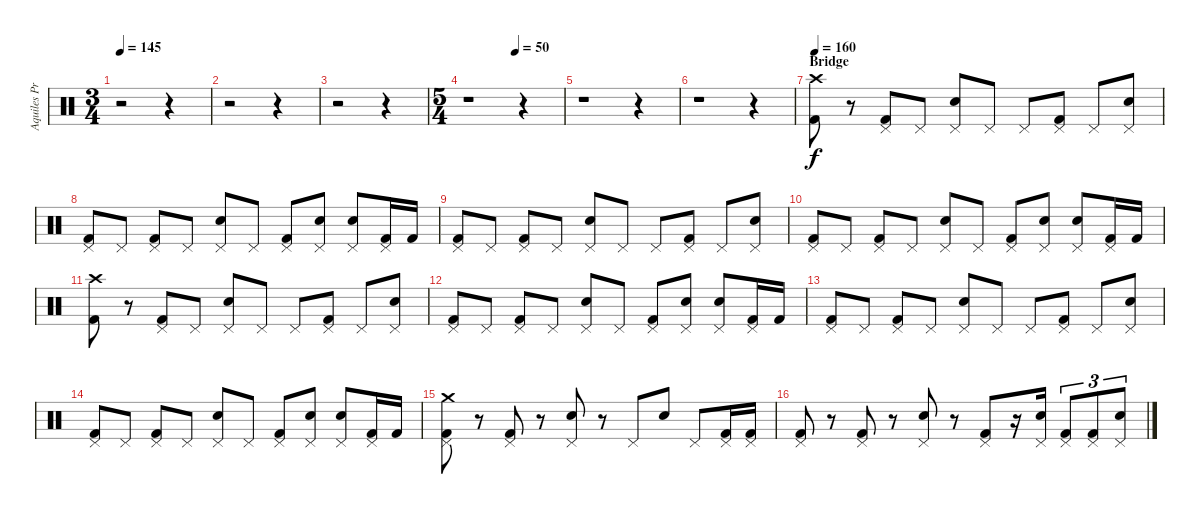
\track ("Aquiles Priester" "Aquiles Pr") {instrument percussion}
\staff {score}
\articulation defaults
\ts (3 4)
\tempo 145
\clef neutral
\ks c
r.2{dy f} r.4 |
r.2 r.4 |
r.2 r.4 |
\ts (5 4)
\tempo (50 0.5)
r.1 r.4 |
r.1 r.4 |
r.1 r.4 |
\section ("" "Bridge")
\tempo 160
("Crash high (hit)" "Kick (hit) 2").8 r.8 ("Pedal Hi-Hat (hit)" "Kick (hit) 2").8 "Pedal Hi-Hat (hit)".8 ("Pedal Hi-Hat (hit)" "Snare (hit) 2").8 "Pedal Hi-Hat (hit)".8 "Pedal Hi-Hat (hit)".8 ("Pedal Hi-Hat (hit)" "Kick (hit) 2").8 "Pedal Hi-Hat (hit)".8 ("Pedal Hi-Hat (hit)" "Snare (hit) 2").8 |
("Pedal Hi-Hat (hit)" "Kick (hit) 2").8 "Pedal Hi-Hat (hit)".8 ("Pedal Hi-Hat (hit)" "Kick (hit) 2").8 "Pedal Hi-Hat (hit)".8 ("Pedal Hi-Hat (hit)" "Snare (hit) 2").8 "Pedal Hi-Hat (hit)".8 ("Pedal Hi-Hat (hit)" "Kick (hit) 2").8 ("Pedal Hi-Hat (hit)" "Snare (hit) 2").8 ("Pedal Hi-Hat (hit)" "Snare (hit) 2").8 ("Pedal Hi-Hat (hit)" "Kick (hit) 2").16 "Kick (hit) 2".16 |
("Pedal Hi-Hat (hit)" "Kick (hit) 2").8 "Pedal Hi-Hat (hit)".8 ("Pedal Hi-Hat (hit)" "Kick (hit) 2").8 "Pedal Hi-Hat (hit)".8 ("Pedal Hi-Hat (hit)" "Snare (hit) 2").8 "Pedal Hi-Hat (hit)".8 "Pedal Hi-Hat (hit)".8 ("Pedal Hi-Hat (hit)" "Kick (hit) 2").8 "Pedal Hi-Hat (hit)".8 ("Pedal Hi-Hat (hit)" "Snare (hit) 2").8 |
("Pedal Hi-Hat (hit)" "Kick (hit) 2").8 "Pedal Hi-Hat (hit)".8 ("Pedal Hi-Hat (hit)" "Kick (hit) 2").8 "Pedal Hi-Hat (hit)".8 ("Pedal Hi-Hat (hit)" "Snare (hit) 2").8 "Pedal Hi-Hat (hit)".8 ("Pedal Hi-Hat (hit)" "Kick (hit) 2").8 ("Pedal Hi-Hat (hit)" "Snare (hit) 2").8 ("Pedal Hi-Hat (hit)" "Snare (hit) 2").8 ("Pedal Hi-Hat (hit)" "Kick (hit) 2").16 "Kick (hit) 2".16 |
("Crash high (hit)" "Kick (hit) 2").8 r.8 ("Pedal Hi-Hat (hit)" "Kick (hit) 2").8 "Pedal Hi-Hat (hit)".8 ("Pedal Hi-Hat (hit)" "Snare (hit) 2").8 "Pedal Hi-Hat (hit)".8 "Pedal Hi-Hat (hit)".8 ("Pedal Hi-Hat (hit)" "Kick (hit) 2").8 "Pedal Hi-Hat (hit)".8 ("Pedal Hi-Hat (hit)" "Snare (hit) 2").8 |
("Pedal Hi-Hat (hit)" "Kick (hit) 2").8 "Pedal Hi-Hat (hit)".8 ("Pedal Hi-Hat (hit)" "Kick (hit) 2").8 "Pedal Hi-Hat (hit)".8 ("Pedal Hi-Hat (hit)" "Snare (hit) 2").8 "Pedal Hi-Hat (hit)".8 ("Pedal Hi-Hat (hit)" "Kick (hit) 2").8 ("Pedal Hi-Hat (hit)" "Snare (hit) 2").8 ("Pedal Hi-Hat (hit)" "Snare (hit) 2").8 ("Pedal Hi-Hat (hit)" "Kick (hit) 2").16 "Kick (hit) 2".16 |
("Pedal Hi-Hat (hit)" "Kick (hit) 2").8 "Pedal Hi-Hat (hit)".8 ("Pedal Hi-Hat (hit)" "Kick (hit) 2").8 "Pedal Hi-Hat (hit)".8 ("Pedal Hi-Hat (hit)" "Snare (hit) 2").8 "Pedal Hi-Hat (hit)".8 "Pedal Hi-Hat (hit)".8 ("Pedal Hi-Hat (hit)" "Kick (hit) 2").8 "Pedal Hi-Hat (hit)".8 ("Pedal Hi-Hat (hit)" "Snare (hit) 2").8 |
("Pedal Hi-Hat (hit)" "Kick (hit) 2").8 "Pedal Hi-Hat (hit)".8 ("Pedal Hi-Hat (hit)" "Kick (hit) 2").8 "Pedal Hi-Hat (hit)".8 ("Pedal Hi-Hat (hit)" "Snare (hit) 2").8 "Pedal Hi-Hat (hit)".8 ("Pedal Hi-Hat (hit)" "Kick (hit) 2").8 ("Pedal Hi-Hat (hit)" "Snare (hit) 2").8 ("Pedal Hi-Hat (hit)" "Snare (hit) 2").8 ("Pedal Hi-Hat (hit)" "Kick (hit) 2").16 "Kick (hit) 2".16 |
("Crash medium (hit)" "Pedal Hi-Hat (hit)" "Kick (hit) 2").8 r.8 ("Pedal Hi-Hat (hit)" "Kick (hit) 2").8 r.8 ("Pedal Hi-Hat (hit)" "Snare (hit) 2").8 r.8 "Pedal Hi-Hat (hit)".8 "Snare (hit) 2".8 "Pedal Hi-Hat (hit)".8 ("Pedal Hi-Hat (hit)" "Kick (hit) 2").16 ("Pedal Hi-Hat (hit)" "Kick (hit) 2").16 |
("Pedal Hi-Hat (hit)" "Kick (hit) 2").8 r.8 ("Pedal Hi-Hat (hit)" "Kick (hit) 2").8 r.8 ("Pedal Hi-Hat (hit)" "Snare (hit) 2").8 r.8 ("Pedal Hi-Hat (hit)" "Kick (hit) 2").8 r.16 ("Pedal Hi-Hat (hit)" "Snare (hit) 2").16 ("Pedal Hi-Hat (hit)" "Kick (hit) 2").8{tu (3 2)} ("Pedal Hi-Hat (hit)" "Kick (hit) 2").8{tu (3 2)} ("Pedal Hi-Hat (hit)" "Snare (hit) 2").8{tu (3 2)}
